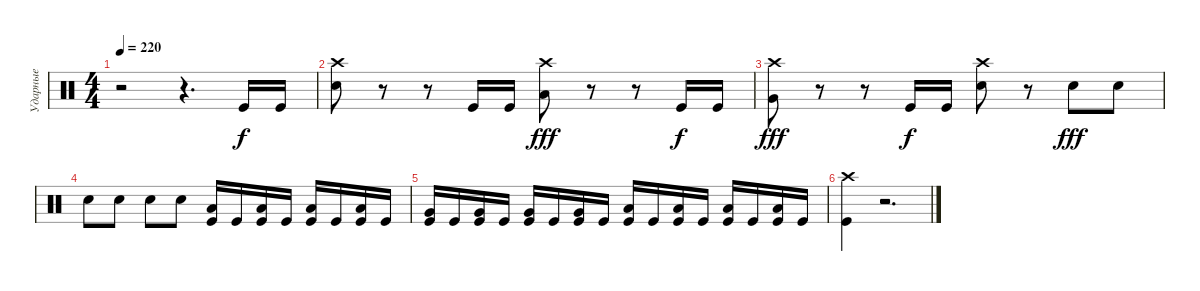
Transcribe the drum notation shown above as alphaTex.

\track ("Ударные" "Ударные") {instrument percussion}
\staff {score}
\articulation defaults
\ts (4 4)
\tempo 220
\clef neutral
\ks c
r.2{dy f} r.4{d} "Kick (hit)".16 "Kick (hit)".16 |
("Crash high (hit)" "Snare (hit) 2").8 r.8 r.8 "Kick (hit)".16 "Kick (hit)".16 ("Crash high (hit)" "Low Floor Tom (hit)").8{dy fff} r.8 r.8 "Kick (hit)".16{dy f} "Kick (hit)".16 |
("Crash high (hit)" "Very Low Tom (hit)").8{dy fff} r.8 r.8 "Kick (hit)".16{dy f} "Kick (hit)".16 ("Crash high (hit)" "Snare (hit) 2").8 r.8 "Snare (hit) 2".8{dy fff} "Snare (hit) 2".8 |
"Snare (hit) 2".8 "Snare (hit) 2".8 "Snare (hit) 2".8 "Snare (hit) 2".8 ("Low Floor Tom (hit)" "Kick (hit)").16 "Kick (hit)".16 ("Low Floor Tom (hit)" "Kick (hit)").16 "Kick (hit)".16 ("Low Floor Tom (hit)" "Kick (hit)").16 "Kick (hit)".16 ("Low Floor Tom (hit)" "Kick (hit)").16 "Kick (hit)".16 |
("Very Low Tom (hit)" "Kick (hit)").16 "Kick (hit)".16 ("Very Low Tom (hit)" "Kick (hit)").16 "Kick (hit)".16 ("Very Low Tom (hit)" "Kick (hit)").16 "Kick (hit)".16 ("Very Low Tom (hit)" "Kick (hit)").16 "Kick (hit)".16 ("Low Floor Tom (hit)" "Kick (hit)").16 "Kick (hit)".16 ("Low Floor Tom (hit)" "Kick (hit)").16 "Kick (hit)".16 ("Low Floor Tom (hit)" "Kick (hit)").16 "Kick (hit)".16 ("Low Floor Tom (hit)" "Kick (hit)").16 "Kick (hit)".16 |
("Crash high (hit)" "Kick (hit)").4 r.2{d}
